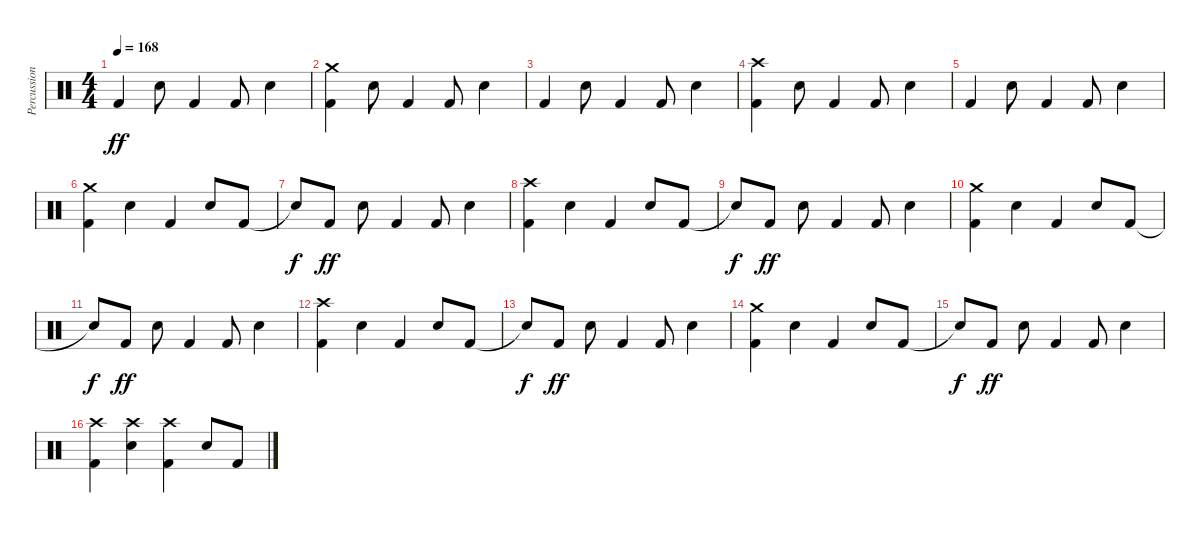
\track ("Percussions" "Percussion") {instrument percussion}
\staff {score}
\articulation defaults
\ts (4 4)
\tempo 168
\clef neutral
\ks c "Kick (hit) 2".4{dy ff} "Snare (hit) 2".8 "Kick (hit) 2".4 "Kick (hit) 2".8 "Snare (hit) 2".4
|
("Kick (hit) 2" "Crash medium (hit)").4 "Snare (hit) 2".8 "Kick (hit) 2".4 "Kick (hit) 2".8 "Snare (hit) 2".4 |
"Kick (hit) 2".4 "Snare (hit) 2".8 "Kick (hit) 2".4 "Kick (hit) 2".8 "Snare (hit) 2".4 |
("Kick (hit) 2" "Crash high (hit)").4 "Snare (hit) 2".8 "Kick (hit) 2".4 "Kick (hit) 2".8 "Snare (hit) 2".4 |
"Kick (hit) 2".4 "Snare (hit) 2".8 "Kick (hit) 2".4 "Kick (hit) 2".8 "Snare (hit) 2".4 |
("Kick (hit) 2" "Crash medium (hit)").4 "Snare (hit) 2".4 "Kick (hit) 2".4 "Snare (hit) 2".8 "Kick (hit) 2".8 |
"Snare (hit)"{t}.8{dy f} "Kick (hit) 2".8{dy ff} "Snare (hit) 2".8 "Kick (hit) 2".4 "Kick (hit) 2".8 "Snare (hit) 2".4 |
("Kick (hit) 2" "Crash high (hit)").4 "Snare (hit) 2".4 "Kick (hit) 2".4 "Snare (hit) 2".8 "Kick (hit) 2".8 |
"Snare (hit)"{t}.8{dy f} "Kick (hit) 2".8{dy ff} "Snare (hit) 2".8 "Kick (hit) 2".4 "Kick (hit) 2".8 "Snare (hit) 2".4 |
("Kick (hit) 2" "Crash medium (hit)").4 "Snare (hit) 2".4 "Kick (hit) 2".4 "Snare (hit) 2".8 "Kick (hit) 2".8 |
"Snare (hit)"{t}.8{dy f} "Kick (hit) 2".8{dy ff} "Snare (hit) 2".8 "Kick (hit) 2".4 "Kick (hit) 2".8 "Snare (hit) 2".4 |
("Kick (hit) 2" "Crash high (hit)").4 "Snare (hit) 2".4 "Kick (hit) 2".4 "Snare (hit) 2".8 "Kick (hit) 2".8 |
"Snare (hit)"{t}.8{dy f} "Kick (hit) 2".8{dy ff} "Snare (hit) 2".8 "Kick (hit) 2".4 "Kick (hit) 2".8 "Snare (hit) 2".4 |
("Kick (hit) 2" "Crash medium (hit)").4 "Snare (hit) 2".4 "Kick (hit) 2".4 "Snare (hit) 2".8 "Kick (hit) 2".8 |
"Snare (hit)"{t}.8{dy f} "Kick (hit) 2".8{dy ff} "Snare (hit) 2".8 "Kick (hit) 2".4 "Kick (hit) 2".8 "Snare (hit) 2".4 |
("Kick (hit) 2" "Crash high (hit)").4 ("Snare (hit) 2" "Crash high (hit)").4 ("Kick (hit) 2" "Crash high (hit)").4 "Snare (hit) 2".8 "Kick (hit) 2".8
